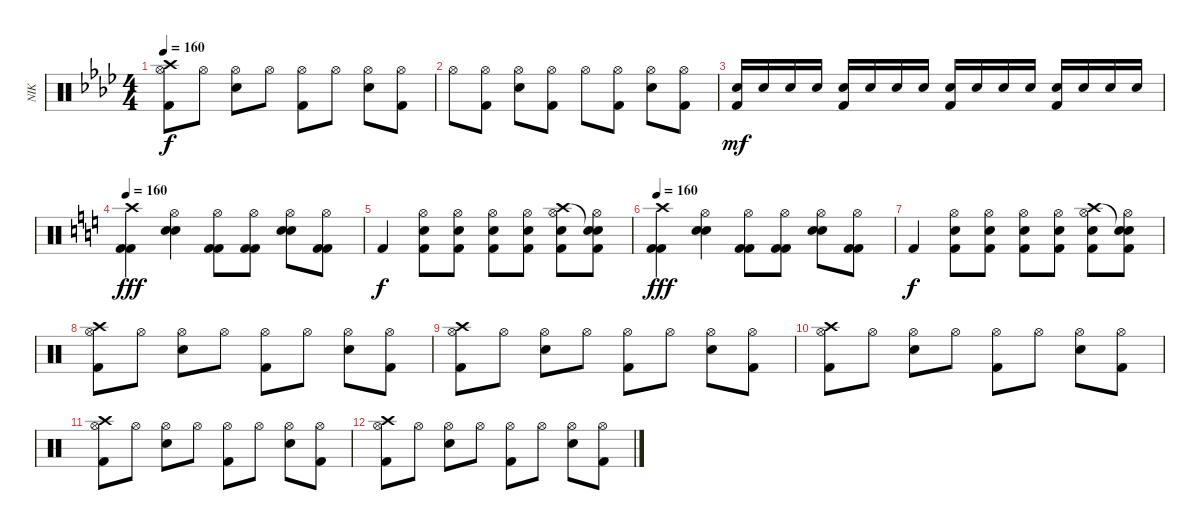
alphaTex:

\track ("NIK" "NIK") {instrument percussion}
\staff {score}
\articulation defaults
\ts (4 4)
\tempo 160
\clef neutral
\ks ab
("Crash high (hit)" "Hi-Hat (open)" "Kick (hit) 2").8{dy f} "Hi-Hat (open)".8 ("Hi-Hat (open)" "Electric Snare (hit)").8 "Hi-Hat (open)".8 ("Hi-Hat (open)" "Kick (hit) 2").8 "Hi-Hat (open)".8 ("Hi-Hat (open)" "Electric Snare (hit)").8 ("Hi-Hat (open)" "Kick (hit) 2").8 |
"Hi-Hat (open)".8 ("Hi-Hat (open)" "Kick (hit) 2").8 ("Hi-Hat (open)" "Electric Snare (hit)").8 ("Hi-Hat (open)" "Kick (hit) 2").8 "Hi-Hat (open)".8 ("Hi-Hat (open)" "Kick (hit) 2").8 ("Hi-Hat (open)" "Electric Snare (hit)").8 ("Hi-Hat (open)" "Kick (hit) 2").8 |
("Electric Snare (hit)" "Kick (hit) 2").16{dy mf} "Electric Snare (hit)".16 "Electric Snare (hit)".16 "Electric Snare (hit)".16 ("Electric Snare (hit)" "Kick (hit) 2").16 "Electric Snare (hit)".16 "Electric Snare (hit)".16 "Electric Snare (hit)".16 ("Electric Snare (hit)" "Kick (hit) 2").16 "Electric Snare (hit)".16 "Electric Snare (hit)".16 "Electric Snare (hit)".16 ("Electric Snare (hit)" "Kick (hit) 2").16 "Electric Snare (hit)".16 "Electric Snare (hit)".16 "Electric Snare (hit)".16 |
\tempo 160
\ks c
("Crash high (hit)" "Kick (hit) 2" "Kick (hit) 2").4{dy fff} ("Hi-Hat (open)" "Electric Snare (hit)" "Electric Snare (hit)").4 ("Hi-Hat (open)" "Kick (hit) 2" "Kick (hit) 2").8 ("Hi-Hat (open)" "Kick (hit) 2" "Kick (hit) 2").8 ("Hi-Hat (open)" "Electric Snare (hit)" "Electric Snare (hit)").8 ("Hi-Hat (open)" "Kick (hit) 2" "Kick (hit) 2").8 |
"Kick (hit) 2".4{dy f} ("Electric Snare (hit)" "Hi-Hat (open)" "Kick (hit) 2").8 ("Electric Snare (hit)" "Hi-Hat (open)" "Kick (hit) 2").8 ("Electric Snare (hit)" "Hi-Hat (open)" "Kick (hit) 2").8 ("Electric Snare (hit)" "Hi-Hat (open)" "Kick (hit) 2").8 ("Electric Snare (hit)" "Hi-Hat (open)" "Kick (hit) 2" "Crash high (hit)").8 ("Electric Snare (hit)" "Hi-Hat (open)" "Kick (hit) 2" "Snare (hit)"{t}).8 |
\tempo 160
("Crash high (hit)" "Kick (hit) 2" "Kick (hit) 2").4{dy fff} ("Hi-Hat (open)" "Electric Snare (hit)" "Electric Snare (hit)").4 ("Hi-Hat (open)" "Kick (hit) 2" "Kick (hit) 2").8 ("Hi-Hat (open)" "Kick (hit) 2" "Kick (hit) 2").8 ("Hi-Hat (open)" "Electric Snare (hit)" "Electric Snare (hit)").8 ("Hi-Hat (open)" "Kick (hit) 2" "Kick (hit) 2").8 |
"Kick (hit) 2".4{dy f} ("Electric Snare (hit)" "Hi-Hat (open)" "Kick (hit) 2").8 ("Electric Snare (hit)" "Hi-Hat (open)" "Kick (hit) 2").8 ("Electric Snare (hit)" "Hi-Hat (open)" "Kick (hit) 2").8 ("Electric Snare (hit)" "Hi-Hat (open)" "Kick (hit) 2").8 ("Electric Snare (hit)" "Hi-Hat (open)" "Kick (hit) 2" "Crash high (hit)").8 ("Electric Snare (hit)" "Hi-Hat (open)" "Kick (hit) 2" "Snare (hit)"{t}).8 |
("Crash high (hit)" "Hi-Hat (open)" "Kick (hit) 2").8 "Hi-Hat (open)".8 ("Hi-Hat (open)" "Electric Snare (hit)").8 "Hi-Hat (open)".8 ("Hi-Hat (open)" "Kick (hit) 2").8 "Hi-Hat (open)".8 ("Hi-Hat (open)" "Electric Snare (hit)").8 ("Hi-Hat (open)" "Kick (hit) 2").8 |
("Crash high (hit)" "Hi-Hat (open)" "Kick (hit) 2").8 "Hi-Hat (open)".8 ("Hi-Hat (open)" "Electric Snare (hit)").8 "Hi-Hat (open)".8 ("Hi-Hat (open)" "Kick (hit) 2").8 "Hi-Hat (open)".8 ("Hi-Hat (open)" "Electric Snare (hit)").8 ("Hi-Hat (open)" "Kick (hit) 2").8 |
("Crash high (hit)" "Hi-Hat (open)" "Kick (hit) 2").8 "Hi-Hat (open)".8 ("Hi-Hat (open)" "Electric Snare (hit)").8 "Hi-Hat (open)".8 ("Hi-Hat (open)" "Kick (hit) 2").8 "Hi-Hat (open)".8 ("Hi-Hat (open)" "Electric Snare (hit)").8 ("Hi-Hat (open)" "Kick (hit) 2").8 |
("Crash high (hit)" "Hi-Hat (open)" "Kick (hit) 2").8 "Hi-Hat (open)".8 ("Hi-Hat (open)" "Electric Snare (hit)").8 "Hi-Hat (open)".8 ("Hi-Hat (open)" "Kick (hit) 2").8 "Hi-Hat (open)".8 ("Hi-Hat (open)" "Electric Snare (hit)").8 ("Hi-Hat (open)" "Kick (hit) 2").8 |
("Crash high (hit)" "Hi-Hat (open)" "Kick (hit) 2").8 "Hi-Hat (open)".8 ("Hi-Hat (open)" "Electric Snare (hit)").8 "Hi-Hat (open)".8 ("Hi-Hat (open)" "Kick (hit) 2").8 "Hi-Hat (open)".8 ("Hi-Hat (open)" "Electric Snare (hit)").8 ("Hi-Hat (open)" "Kick (hit) 2").8
